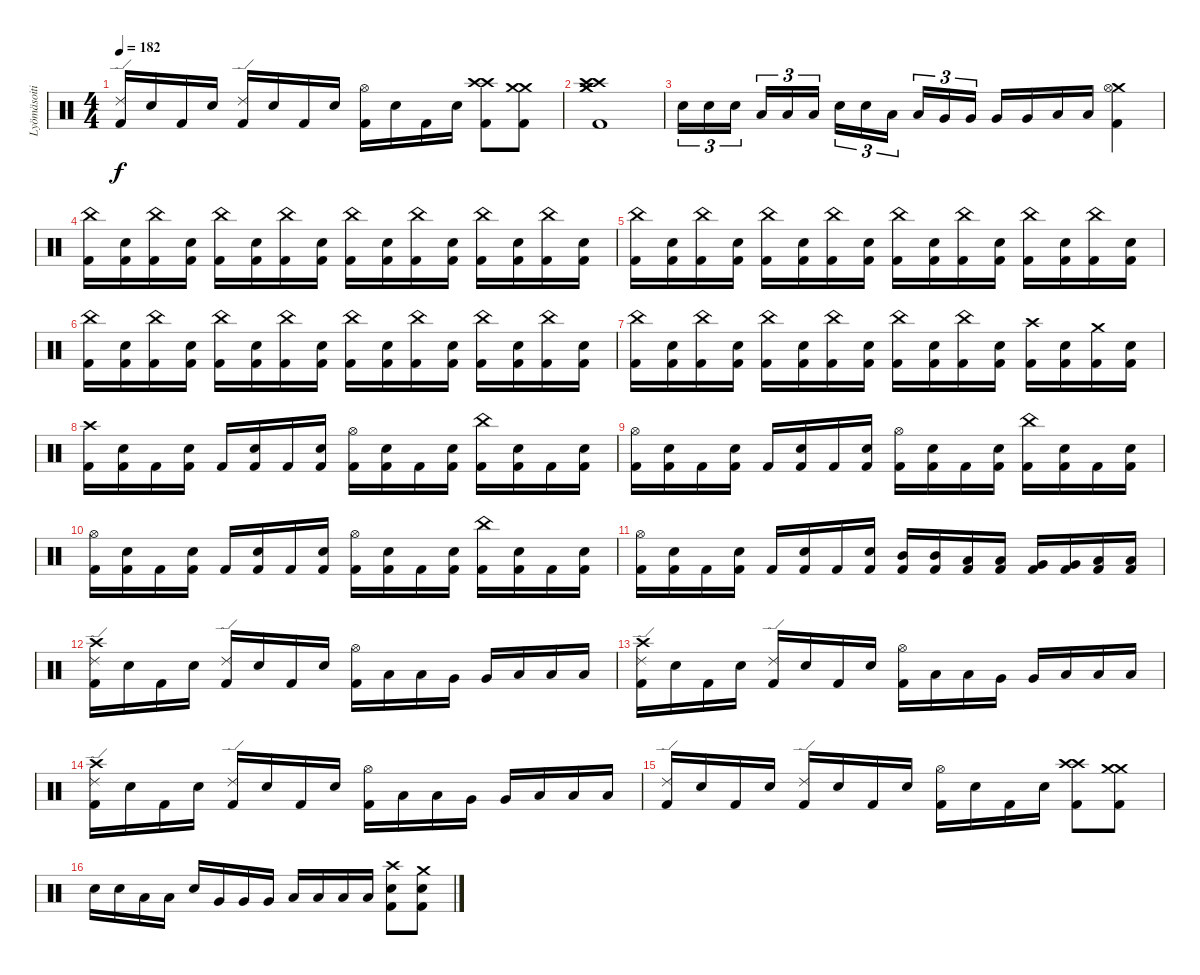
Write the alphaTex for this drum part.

\track ("Lyömäsoitin" "Lyömäsoiti") {instrument percussion}
\staff {score}
\articulation defaults
\ts (4 4)
\tempo 182
\clef neutral
\ks c
("Ride (edge) 2" "Kick (hit) 2").16{dy f} "Electric Snare (hit)".16 "Kick (hit) 2".16 "Electric Snare (hit)".16 ("Ride (edge) 2" "Kick (hit) 2").16 "Electric Snare (hit)".16 "Kick (hit) 2".16 "Electric Snare (hit)".16 ("Hi-Hat (open)" "Kick (hit) 2").16 "Electric Snare (hit)".16 "Kick (hit) 2".16 "Electric Snare (hit)".16 ("Crash high (hit)" "Crash high (hit)" "Kick (hit) 2").8 ("Crash medium (hit)" "Crash medium (hit)" "Kick (hit) 2").8 |
("Crash medium (hit)" "Crash medium (hit)" "Crash high (hit)" "Crash high (hit)" "Kick (hit) 2").1 |
"Electric Snare (hit)".16{tu (3 2)} "Electric Snare (hit)".16{tu (3 2)} "Electric Snare (hit)".16{tu (3 2)} "Low Tom (hit)".16{tu (3 2)} "Low Tom (hit)".16{tu (3 2)} "Low Tom (hit)".16{tu (3 2)} "Electric Snare (hit)".16{tu (3 2)} "Electric Snare (hit)".16{tu (3 2)} "Low Tom (hit)".16{tu (3 2)} "Low Tom (hit)".16{tu (3 2)} "Very Low Tom (hit)".16{tu (3 2)} "Very Low Tom (hit)".16{tu (3 2)} "Very Low Tom (hit)".16 "Very Low Tom (hit)".16 "Low Floor Tom (hit)".16 "Low Floor Tom (hit)".16 ("Crash medium (hit)" "Hi-Hat (open)" "Kick (hit) 2").4 |
("China (hit)" "Kick (hit) 2").16 ("Electric Snare (hit)" "Kick (hit) 2").16 ("China (hit)" "Kick (hit) 2").16 ("Electric Snare (hit)" "Kick (hit) 2").16 ("China (hit)" "Kick (hit) 2").16 ("Electric Snare (hit)" "Kick (hit) 2").16 ("China (hit)" "Kick (hit) 2").16 ("Electric Snare (hit)" "Kick (hit) 2").16 ("China (hit)" "Kick (hit) 2").16 ("Electric Snare (hit)" "Kick (hit) 2").16 ("China (hit)" "Kick (hit) 2").16 ("Electric Snare (hit)" "Kick (hit) 2").16 ("China (hit)" "Kick (hit) 2").16 ("Electric Snare (hit)" "Kick (hit) 2").16 ("China (hit)" "Kick (hit) 2").16 ("Electric Snare (hit)" "Kick (hit) 2").16 |
("China (hit)" "Kick (hit) 2").16 ("Electric Snare (hit)" "Kick (hit) 2").16 ("China (hit)" "Kick (hit) 2").16 ("Electric Snare (hit)" "Kick (hit) 2").16 ("China (hit)" "Kick (hit) 2").16 ("Electric Snare (hit)" "Kick (hit) 2").16 ("China (hit)" "Kick (hit) 2").16 ("Electric Snare (hit)" "Kick (hit) 2").16 ("China (hit)" "Kick (hit) 2").16 ("Electric Snare (hit)" "Kick (hit) 2").16 ("China (hit)" "Kick (hit) 2").16 ("Electric Snare (hit)" "Kick (hit) 2").16 ("China (hit)" "Kick (hit) 2").16 ("Electric Snare (hit)" "Kick (hit) 2").16 ("China (hit)" "Kick (hit) 2").16 ("Electric Snare (hit)" "Kick (hit) 2").16 |
("China (hit)" "Kick (hit) 2").16 ("Electric Snare (hit)" "Kick (hit) 2").16 ("China (hit)" "Kick (hit) 2").16 ("Electric Snare (hit)" "Kick (hit) 2").16 ("China (hit)" "Kick (hit) 2").16 ("Electric Snare (hit)" "Kick (hit) 2").16 ("China (hit)" "Kick (hit) 2").16 ("Electric Snare (hit)" "Kick (hit) 2").16 ("China (hit)" "Kick (hit) 2").16 ("Electric Snare (hit)" "Kick (hit) 2").16 ("China (hit)" "Kick (hit) 2").16 ("Electric Snare (hit)" "Kick (hit) 2").16 ("China (hit)" "Kick (hit) 2").16 ("Electric Snare (hit)" "Kick (hit) 2").16 ("China (hit)" "Kick (hit) 2").16 ("Electric Snare (hit)" "Kick (hit) 2").16 |
("China (hit)" "Kick (hit) 2").16 ("Electric Snare (hit)" "Kick (hit) 2").16 ("China (hit)" "Kick (hit) 2").16 ("Electric Snare (hit)" "Kick (hit) 2").16 ("China (hit)" "Kick (hit) 2").16 ("Electric Snare (hit)" "Kick (hit) 2").16 ("China (hit)" "Kick (hit) 2").16 ("Electric Snare (hit)" "Kick (hit) 2").16 ("China (hit)" "Kick (hit) 2").16 ("Electric Snare (hit)" "Kick (hit) 2").16 ("China (hit)" "Kick (hit) 2").16 ("Electric Snare (hit)" "Kick (hit) 2").16 ("Crash high (hit)" "Kick (hit) 2").16 ("Electric Snare (hit)" "Kick (hit) 2").16 ("Crash medium (hit)" "Kick (hit) 2").16 ("Electric Snare (hit)" "Kick (hit) 2").16 |
("Crash high (hit)" "Kick (hit) 2").16 ("Electric Snare (hit)" "Kick (hit) 2").16 "Kick (hit) 2".16 ("Electric Snare (hit)" "Kick (hit) 2").16 "Kick (hit) 2".16 ("Electric Snare (hit)" "Kick (hit) 2").16 "Kick (hit) 2".16 ("Electric Snare (hit)" "Kick (hit) 2").16 ("Hi-Hat (open)" "Kick (hit) 2").16 ("Electric Snare (hit)" "Kick (hit) 2").16 "Kick (hit) 2".16 ("Electric Snare (hit)" "Kick (hit) 2").16 ("China (hit)" "Kick (hit) 2").16 ("Electric Snare (hit)" "Kick (hit) 2").16 "Kick (hit) 2".16 ("Electric Snare (hit)" "Kick (hit) 2").16 |
("Hi-Hat (open)" "Kick (hit) 2").16 ("Electric Snare (hit)" "Kick (hit) 2").16 "Kick (hit) 2".16 ("Electric Snare (hit)" "Kick (hit) 2").16 "Kick (hit) 2".16 ("Electric Snare (hit)" "Kick (hit) 2").16 "Kick (hit) 2".16 ("Electric Snare (hit)" "Kick (hit) 2").16 ("Hi-Hat (open)" "Kick (hit) 2").16 ("Electric Snare (hit)" "Kick (hit) 2").16 "Kick (hit) 2".16 ("Electric Snare (hit)" "Kick (hit) 2").16 ("China (hit)" "Kick (hit) 2").16 ("Electric Snare (hit)" "Kick (hit) 2").16 "Kick (hit) 2".16 ("Electric Snare (hit)" "Kick (hit) 2").16 |
("Hi-Hat (open)" "Kick (hit) 2").16 ("Electric Snare (hit)" "Kick (hit) 2").16 "Kick (hit) 2".16 ("Electric Snare (hit)" "Kick (hit) 2").16 "Kick (hit) 2".16 ("Electric Snare (hit)" "Kick (hit) 2").16 "Kick (hit) 2".16 ("Electric Snare (hit)" "Kick (hit) 2").16 ("Hi-Hat (open)" "Kick (hit) 2").16 ("Electric Snare (hit)" "Kick (hit) 2").16 "Kick (hit) 2".16 ("Electric Snare (hit)" "Kick (hit) 2").16 ("China (hit)" "Kick (hit) 2").16 ("Electric Snare (hit)" "Kick (hit) 2").16 "Kick (hit) 2".16 ("Electric Snare (hit)" "Kick (hit) 2").16 |
("Hi-Hat (open)" "Kick (hit) 2").16 ("Electric Snare (hit)" "Kick (hit) 2").16 "Kick (hit) 2".16 ("Electric Snare (hit)" "Kick (hit) 2").16 "Kick (hit) 2".16 ("Electric Snare (hit)" "Kick (hit) 2").16 "Kick (hit) 2".16 ("Electric Snare (hit)" "Kick (hit) 2").16 ("Mid Tom (hit)" "Kick (hit) 2").16 ("Mid Tom (hit)" "Kick (hit) 2").16 ("Low Tom (hit)" "Kick (hit) 2").16 ("Low Tom (hit)" "Kick (hit) 2").16 ("Very Low Tom (hit)" "Kick (hit) 2").16 ("Very Low Tom (hit)" "Kick (hit) 2").16 ("Low Floor Tom (hit)" "Kick (hit) 2").16 ("Low Floor Tom (hit)" "Kick (hit) 2").16 |
("Crash high (hit)" "Ride (edge) 2" "Kick (hit) 2").16 "Electric Snare (hit)".16 "Kick (hit) 2".16 "Electric Snare (hit)".16 ("Ride (edge) 2" "Kick (hit) 2").16 "Electric Snare (hit)".16 "Kick (hit) 2".16 "Electric Snare (hit)".16 ("Hi-Hat (open)" "Kick (hit) 2").16 "Low Tom (hit)".16 "Low Tom (hit)".16 "Very Low Tom (hit)".16 "Very Low Tom (hit)".16 "Low Floor Tom (hit)".16 "Low Floor Tom (hit)".16 "Low Floor Tom (hit)".16 |
("Crash high (hit)" "Ride (edge) 2" "Kick (hit) 2").16 "Electric Snare (hit)".16 "Kick (hit) 2".16 "Electric Snare (hit)".16 ("Ride (edge) 2" "Kick (hit) 2").16 "Electric Snare (hit)".16 "Kick (hit) 2".16 "Electric Snare (hit)".16 ("Hi-Hat (open)" "Kick (hit) 2").16 "Low Tom (hit)".16 "Low Tom (hit)".16 "Very Low Tom (hit)".16 "Very Low Tom (hit)".16 "Low Floor Tom (hit)".16 "Low Floor Tom (hit)".16 "Low Floor Tom (hit)".16 |
("Crash high (hit)" "Ride (edge) 2" "Kick (hit) 2").16 "Electric Snare (hit)".16 "Kick (hit) 2".16 "Electric Snare (hit)".16 ("Ride (edge) 2" "Kick (hit) 2").16 "Electric Snare (hit)".16 "Kick (hit) 2".16 "Electric Snare (hit)".16 ("Hi-Hat (open)" "Kick (hit) 2").16 "Low Tom (hit)".16 "Low Tom (hit)".16 "Very Low Tom (hit)".16 "Very Low Tom (hit)".16 "Low Floor Tom (hit)".16 "Low Floor Tom (hit)".16 "Low Floor Tom (hit)".16 |
("Ride (edge) 2" "Kick (hit) 2").16 "Electric Snare (hit)".16 "Kick (hit) 2".16 "Electric Snare (hit)".16 ("Ride (edge) 2" "Kick (hit) 2").16 "Electric Snare (hit)".16 "Kick (hit) 2".16 "Electric Snare (hit)".16 ("Hi-Hat (open)" "Kick (hit) 2").16 "Electric Snare (hit)".16 "Kick (hit) 2".16 "Electric Snare (hit)".16 ("Crash high (hit)" "Crash high (hit)" "Kick (hit) 2").8 ("Crash medium (hit)" "Crash medium (hit)" "Kick (hit) 2").8 |
"Electric Snare (hit)".16 "Electric Snare (hit)".16 "Low Tom (hit)".16 "Low Tom (hit)".16 "Electric Snare (hit)".16 "Very Low Tom (hit)".16 "Very Low Tom (hit)".16 "Very Low Tom (hit)".16 "Low Floor Tom (hit)".16 "Low Floor Tom (hit)".16 "Low Floor Tom (hit)".16 "Low Floor Tom (hit)".16 ("Crash high (hit)" "Electric Snare (hit)" "Kick (hit) 2").8 ("Crash medium (hit)" "Electric Snare (hit)" "Kick (hit) 2").8
